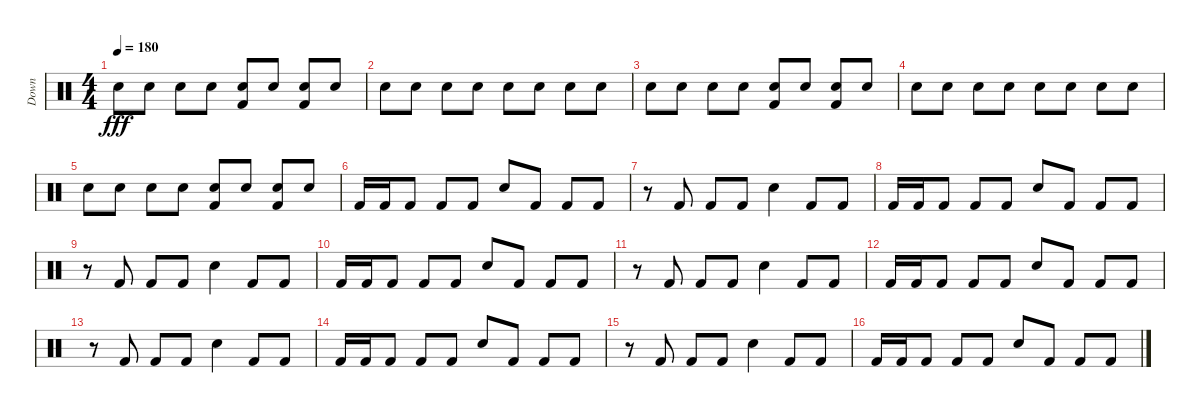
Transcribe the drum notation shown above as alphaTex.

\track ("Down" "Down") {instrument percussion}
\staff {score}
\articulation defaults
\ts (4 4)
\tempo 180
\clef neutral
\ks c "Electric Snare (hit)".8{dy fff} "Electric Snare (hit)".8 "Electric Snare (hit)".8 "Electric Snare (hit)".8
("Electric Snare (hit)" "Kick (hit) 2").8 "Electric Snare (hit)".8 ("Electric Snare (hit)" "Kick (hit) 2").8 "Electric Snare (hit)".8 |
"Electric Snare (hit)".8 "Electric Snare (hit)".8 "Electric Snare (hit)".8 "Electric Snare (hit)".8 "Electric Snare (hit)".8 "Electric Snare (hit)".8 "Electric Snare (hit)".8 "Electric Snare (hit)".8 |
"Electric Snare (hit)".8 "Electric Snare (hit)".8 "Electric Snare (hit)".8 "Electric Snare (hit)".8 ("Electric Snare (hit)" "Kick (hit) 2").8 "Electric Snare (hit)".8 ("Electric Snare (hit)" "Kick (hit) 2").8 "Electric Snare (hit)".8 |
"Electric Snare (hit)".8 "Electric Snare (hit)".8 "Electric Snare (hit)".8 "Electric Snare (hit)".8 "Electric Snare (hit)".8 "Electric Snare (hit)".8 "Electric Snare (hit)".8 "Electric Snare (hit)".8 |
"Electric Snare (hit)".8 "Electric Snare (hit)".8 "Electric Snare (hit)".8 "Electric Snare (hit)".8 ("Electric Snare (hit)" "Kick (hit) 2").8 "Electric Snare (hit)".8 ("Electric Snare (hit)" "Kick (hit) 2").8 "Electric Snare (hit)".8 |
"Kick (hit) 2".16 "Kick (hit) 2".16 "Kick (hit) 2".8 "Kick (hit) 2".8 "Kick (hit) 2".8 "Electric Snare (hit)".8 "Kick (hit) 2".8 "Kick (hit) 2".8 "Kick (hit) 2".8 |
r.8 "Kick (hit) 2".8 "Kick (hit) 2".8 "Kick (hit) 2".8 "Electric Snare (hit)".4 "Kick (hit) 2".8 "Kick (hit) 2".8 |
"Kick (hit) 2".16 "Kick (hit) 2".16 "Kick (hit) 2".8 "Kick (hit) 2".8 "Kick (hit) 2".8 "Electric Snare (hit)".8 "Kick (hit) 2".8 "Kick (hit) 2".8 "Kick (hit) 2".8 |
r.8 "Kick (hit) 2".8 "Kick (hit) 2".8 "Kick (hit) 2".8 "Electric Snare (hit)".4 "Kick (hit) 2".8 "Kick (hit) 2".8 |
"Kick (hit) 2".16 "Kick (hit) 2".16 "Kick (hit) 2".8 "Kick (hit) 2".8 "Kick (hit) 2".8 "Electric Snare (hit)".8 "Kick (hit) 2".8 "Kick (hit) 2".8 "Kick (hit) 2".8 |
r.8 "Kick (hit) 2".8 "Kick (hit) 2".8 "Kick (hit) 2".8 "Electric Snare (hit)".4 "Kick (hit) 2".8 "Kick (hit) 2".8 |
"Kick (hit) 2".16 "Kick (hit) 2".16 "Kick (hit) 2".8 "Kick (hit) 2".8 "Kick (hit) 2".8 "Electric Snare (hit)".8 "Kick (hit) 2".8 "Kick (hit) 2".8 "Kick (hit) 2".8 |
r.8 "Kick (hit) 2".8 "Kick (hit) 2".8 "Kick (hit) 2".8 "Electric Snare (hit)".4 "Kick (hit) 2".8 "Kick (hit) 2".8 |
"Kick (hit) 2".16 "Kick (hit) 2".16 "Kick (hit) 2".8 "Kick (hit) 2".8 "Kick (hit) 2".8 "Electric Snare (hit)".8 "Kick (hit) 2".8 "Kick (hit) 2".8 "Kick (hit) 2".8 |
r.8 "Kick (hit) 2".8 "Kick (hit) 2".8 "Kick (hit) 2".8 "Electric Snare (hit)".4 "Kick (hit) 2".8 "Kick (hit) 2".8 |
"Kick (hit) 2".16 "Kick (hit) 2".16 "Kick (hit) 2".8 "Kick (hit) 2".8 "Kick (hit) 2".8 "Electric Snare (hit)".8 "Kick (hit) 2".8 "Kick (hit) 2".8 "Kick (hit) 2".8
